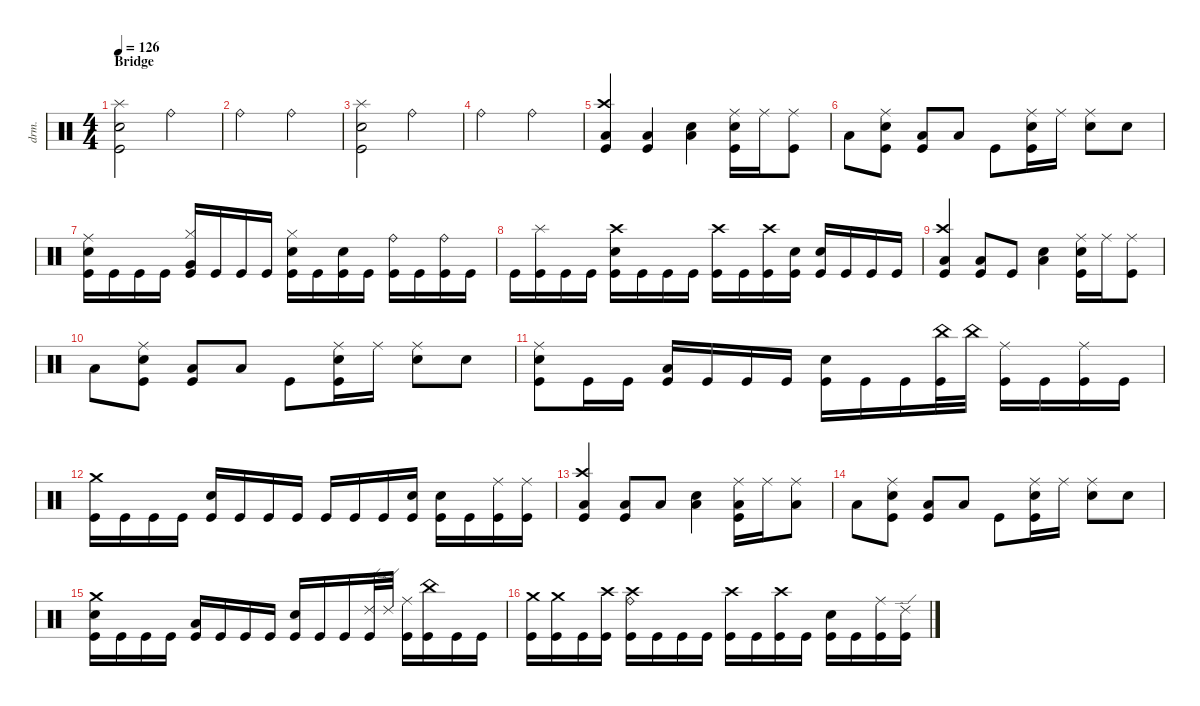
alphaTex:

\defaultSystemsLayout 4
\hideDynamics
\bracketExtendMode nobrackets
\track ("Gene Hoglan " "drm.") {instrument percussion}
\staff {score}
\articulation defaults
\ts (4 4)
\section ("" "Bridge")
\tempo 126
\clef neutral
\ks c
("Splash (hit)" "Snare (hit) 2" "Kick (hit)").2{dy f} "Ride (bell)".2 |
"Ride (bell)".2 "Ride (bell)".2 |
("Splash (hit)" "Snare (hit) 2" "Kick (hit)").2 "Ride (bell)".2 |
"Ride (bell)".2 "Ride (bell)".2 |
("Crash high (hit)" "Low Floor Tom (hit)" "Kick (hit)").4 ("Low Floor Tom (hit)" "Kick (hit)").4 ("Low Floor Tom (hit)" "Snare (hit) 2").4 ("Ride (middle)" "Snare (hit) 2" "Kick (hit)").16 "Ride (middle)".16 ("Ride (middle)" "Kick (hit)").8 |
"Low Floor Tom (hit)".8 ("Ride (middle)" "Snare (hit) 2" "Kick (hit)").8 ("Low Floor Tom (hit)" "Kick (hit)").8 "Low Floor Tom (hit)".8 "Kick (hit)".8 ("Ride (middle)" "Snare (hit) 2" "Kick (hit)").16 "Ride (middle)".16 ("Ride (middle)" "Snare (hit) 2").8 "Snare (hit) 2".8 |
("Ride (middle)" "Snare (hit) 2" "Kick (hit)").16 "Kick (hit)".16 "Kick (hit)".16 "Kick (hit)".16 ("Hi-Hat (closed)" "Very Low Tom (hit)" "Kick (hit)").16 "Kick (hit)".16 "Kick (hit)".16 "Kick (hit)".16 ("Hi-Hat (closed)" "Snare (hit) 2" "Kick (hit)").16 "Kick (hit)".16 ("Snare (hit) 2" "Kick (hit)").16 "Kick (hit)".16 ("Ride (bell)" "Kick (hit)").16 "Kick (hit)".16 ("Ride (bell)" "Kick (hit)").16 "Kick (hit)".16 |
"Kick (hit)".16 ("Splash (hit)" "Kick (hit)").16 "Kick (hit)".16 "Kick (hit)".16 ("Crash high (hit)" "Snare (hit) 2" "Kick (hit)").16 "Kick (hit)".16 "Kick (hit)".16 "Kick (hit)".16 ("Crash high (hit)" "Kick (hit)").16 "Kick (hit)".16 ("Crash high (hit)" "Kick (hit)").16 ("Snare (hit) 2" "Kick (hit)").16 ("Snare (hit) 2" "Kick (hit)").16 "Kick (hit)".16 "Kick (hit)".16 "Kick (hit)".16 |
("Crash high (hit)" "Low Floor Tom (hit)" "Kick (hit)").4 ("Low Floor Tom (hit)" "Kick (hit)").8 "Kick (hit)".8 ("Snare (hit) 2" "Low Floor Tom (hit)").4 ("Ride (middle)" "Snare (hit) 2" "Kick (hit)").16 "Ride (middle)".16 ("Ride (middle)" "Kick (hit)").8 |
"Low Floor Tom (hit)".8 ("Ride (middle)" "Snare (hit) 2" "Kick (hit)").8 ("Low Floor Tom (hit)" "Kick (hit)").8 "Low Floor Tom (hit)".8 "Kick (hit)".8 ("Ride (middle)" "Snare (hit) 2" "Kick (hit)").16 "Ride (middle)".16 ("Ride (middle)" "Snare (hit) 2").8 "Snare (hit) 2".8 |
("Ride (middle)" "Snare (hit) 2" "Kick (hit)").8 "Kick (hit)".16 "Kick (hit)".16 ("Low Tom (hit)" "Kick (hit)").16 "Kick (hit)".16 "Kick (hit)".16 "Kick (hit)".16 ("Snare (hit) 2" "Kick (hit)").16 "Kick (hit)".16 "Kick (hit)".16 ("China (hit)" "Kick (hit)").32 "China (hit)".32 ("Ride (middle)" "Kick (hit)").16 "Kick (hit)".16 ("Ride (middle)" "Kick (hit)").16 "Kick (hit)".16 |
("Crash medium (hit)" "Kick (hit)").16 "Kick (hit)".16 "Kick (hit)".16 "Kick (hit)".16 ("Snare (hit) 2" "Kick (hit)").16 "Kick (hit)".16 "Kick (hit)".16 "Kick (hit)".16 "Kick (hit)".16 "Kick (hit)".16 "Kick (hit)".16 ("Snare (hit) 2" "Kick (hit)").16 ("Snare (hit) 2" "Kick (hit)").16 "Kick (hit)".16 ("Ride (middle)" "Kick (hit)").16 ("Ride (middle)" "Kick (hit)").16 |
("Crash high (hit)" "Low Floor Tom (hit)" "Kick (hit)").4 ("Low Floor Tom (hit)" "Kick (hit)").8 "Low Floor Tom (hit)".8 ("Snare (hit) 2" "Low Floor Tom (hit)").4 ("Ride (middle)" "Low Floor Tom (hit)" "Kick (hit)").16 "Ride (middle)".16 ("Ride (middle)" "Low Floor Tom (hit)").8 |
"Low Floor Tom (hit)".8 ("Ride (middle)" "Snare (hit) 2" "Kick (hit)").8 ("Low Floor Tom (hit)" "Kick (hit)").8 "Low Floor Tom (hit)".8 "Kick (hit)".8 ("Ride (middle)" "Snare (hit) 2" "Kick (hit)").16 "Ride (middle)".16 ("Ride (middle)" "Snare (hit) 2").8 "Snare (hit) 2".8 |
("Crash medium (hit)" "Snare (hit) 2" "Kick (hit)").16 "Kick (hit)".16 "Kick (hit)".16 "Kick (hit)".16 ("Low Tom (hit)" "Kick (hit)").16 "Kick (hit)".16 "Kick (hit)".16 "Kick (hit)".16 ("Snare (hit) 2" "Kick (hit)").16 "Kick (hit)".16 "Kick (hit)".16 ("Ride (edge) 2" "Kick (hit)").32 "Ride (edge) 2".32 ("Ride (middle)" "Kick (hit)").16 ("China (hit)" "Kick (hit)").16 "Kick (hit)".16 "Kick (hit)".16 |
("Crash medium (hit)" "Kick (hit)").16 ("Crash medium (hit)" "Kick (hit)").16 "Kick (hit)".16 ("Crash high (hit)" "Kick (hit)").16 ("Crash high (hit)" "Ride (bell)" "Kick (hit)").16 "Kick (hit)".16 "Kick (hit)".16 "Kick (hit)".16 ("Crash high (hit)" "Kick (hit)").16 "Kick (hit)".16 ("Crash high (hit)" "Kick (hit)").16 "Kick (hit)".16 ("Snare (hit) 2" "Kick (hit)").16 "Kick (hit)".16 ("Ride (middle)" "Kick (hit)").16 ("Ride (edge) 2" "Kick (hit)").16
